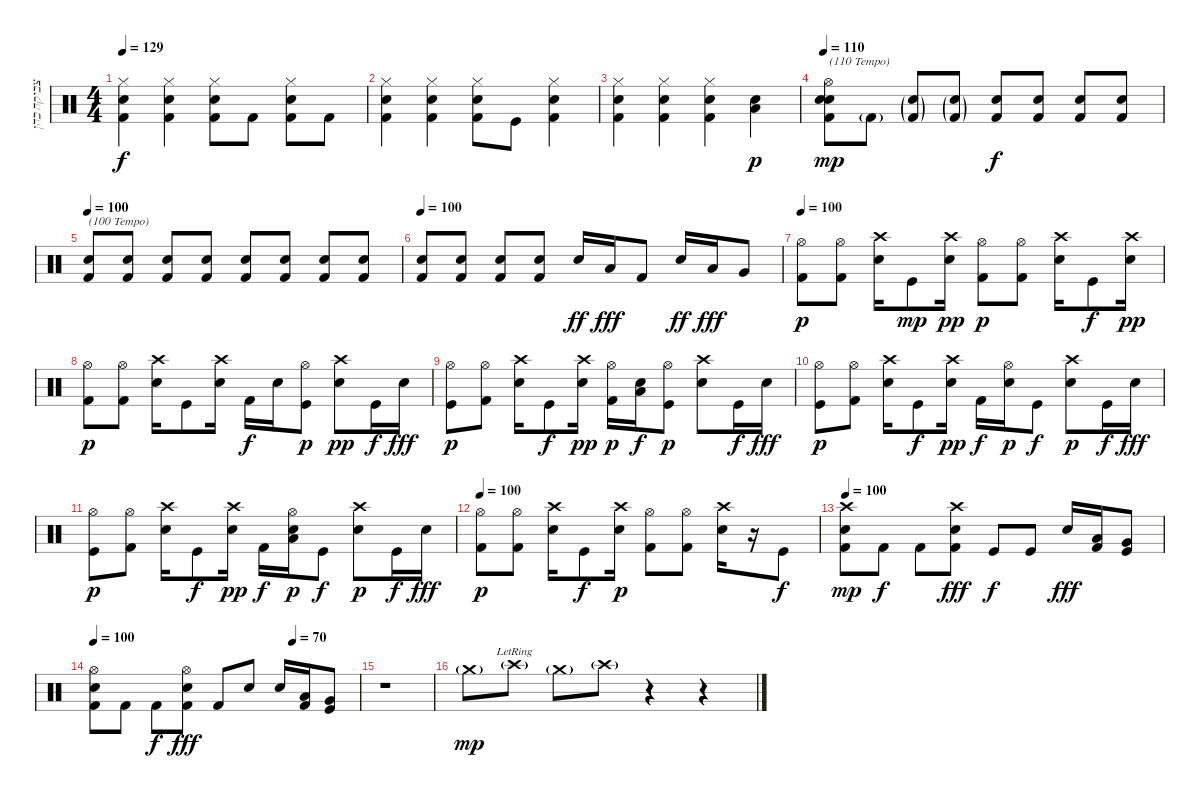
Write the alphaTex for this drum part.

\track ("צביקה כהן - תופים" "צביקה כהן ") {instrument percussion}
\staff {score}
\articulation defaults
\ts (4 4)
\tempo 129
\clef neutral
\ks c
("Hi-Hat (closed)" "Electric Snare (hit)" "Kick (hit) 2").4{dy f} ("Hi-Hat (closed)" "Electric Snare (hit)" "Kick (hit) 2").4 ("Hi-Hat (closed)" "Electric Snare (hit)" "Kick (hit) 2").8 "Kick (hit) 2".8 ("Hi-Hat (closed)" "Electric Snare (hit)" "Kick (hit) 2").8 "Kick (hit) 2".8 |
("Hi-Hat (closed)" "Electric Snare (hit)" "Kick (hit) 2").4 ("Hi-Hat (closed)" "Electric Snare (hit)" "Kick (hit) 2").4 ("Hi-Hat (closed)" "Electric Snare (hit)" "Kick (hit) 2").8 "Kick (hit)".8 ("Hi-Hat (closed)" "Electric Snare (hit)" "Kick (hit) 2").4 |
("Hi-Hat (closed)" "Electric Snare (hit)" "Kick (hit) 2").4 ("Hi-Hat (closed)" "Electric Snare (hit)" "Kick (hit) 2").4 ("Hi-Hat (closed)" "Electric Snare (hit)" "Kick (hit) 2").4 ("Low Tom (hit)" "Electric Snare (hit)").4{dy p} |
\tempo 110
("Electric Snare (hit)" "Snare (hit) 2" "Hi-Hat (open)" "Kick (hit) 2").8{txt "(110 Tempo) " dy mp} "Kick (hit) 2"{g}.8 ("Electric Snare (hit)"{g} "Kick (hit) 2"{g}).8 ("Electric Snare (hit)"{g} "Kick (hit) 2"{g}).8 ("Electric Snare (hit)" "Kick (hit) 2").8{dy f} ("Electric Snare (hit)" "Kick (hit) 2").8 ("Electric Snare (hit)" "Kick (hit) 2").8 ("Electric Snare (hit)" "Kick (hit) 2").8 |
\tempo 100
("Electric Snare (hit)" "Kick (hit) 2").8{txt "(100 Tempo)"} ("Electric Snare (hit)" "Kick (hit) 2").8 ("Electric Snare (hit)" "Kick (hit) 2").8 ("Electric Snare (hit)" "Kick (hit) 2").8 ("Electric Snare (hit)" "Kick (hit) 2").8 ("Electric Snare (hit)" "Kick (hit) 2").8 ("Electric Snare (hit)" "Kick (hit) 2").8 ("Electric Snare (hit)" "Kick (hit) 2").8 |
\tempo 100
("Electric Snare (hit)" "Kick (hit) 2").8 ("Electric Snare (hit)" "Kick (hit) 2").8 ("Electric Snare (hit)" "Kick (hit) 2").8 ("Electric Snare (hit)" "Kick (hit) 2").8 "Electric Snare (hit)".16{dy ff} "Low Tom (hit)".16{dy fff} "Kick (hit) 2".8 "Electric Snare (hit)".16{dy ff} "Low Tom (hit)".16{dy fff} "Very Low Tom (hit)".8 |
\tempo 100
("Kick (hit) 2" "Hi-Hat (open)").8{dy p} ("Kick (hit) 2" "Hi-Hat (open)").8 ("Electric Snare (hit)" "Crash high (hit)").16 "Kick (hit)".8{dy mp} ("Electric Snare (hit)" "Crash high (hit)").16{dy pp} ("Kick (hit) 2" "Hi-Hat (open)").8{dy p} ("Kick (hit) 2" "Hi-Hat (open)").8 ("Electric Snare (hit)" "Crash high (hit)").16 "Kick (hit)".8{dy f} ("Electric Snare (hit)" "Crash high (hit)").16{dy pp} |
("Kick (hit) 2" "Hi-Hat (open)").8{dy p} ("Kick (hit) 2" "Hi-Hat (open)").8 ("Electric Snare (hit)" "Crash high (hit)").16 "Kick (hit)".8 ("Electric Snare (hit)" "Crash high (hit)").16 "Kick (hit) 2".16{dy f} "Electric Snare (hit)".16 ("Kick (hit)" "Hi-Hat (open)").8{dy p} ("Electric Snare (hit)" "Crash high (hit)").8{dy pp} "Kick (hit)".16{dy f} "Electric Snare (hit)".16{dy fff} |
("Kick (hit)" "Hi-Hat (open)").8{dy p} ("Kick (hit) 2" "Hi-Hat (open)").8 ("Electric Snare (hit)" "Crash high (hit)").16 "Kick (hit)".8{dy f} ("Electric Snare (hit)" "Crash high (hit)").16{dy pp} ("Kick (hit) 2" "Hi-Hat (open)").16{dy p} ("Low Tom (hit)" "Electric Snare (hit)").16{dy f} ("Kick (hit)" "Hi-Hat (open)").8{dy p} ("Electric Snare (hit)" "Crash high (hit)").8 "Kick (hit)".16{dy f} "Electric Snare (hit)".16{dy fff} |
("Kick (hit)" "Hi-Hat (open)").8{dy p} ("Kick (hit) 2" "Hi-Hat (open)").8 ("Electric Snare (hit)" "Crash high (hit)").16 "Kick (hit)".8{dy f} ("Electric Snare (hit)" "Crash high (hit)").16{dy pp} "Kick (hit) 2".16{dy f} ("Electric Snare (hit)" "Hi-Hat (open)").16{dy p} "Kick (hit)".8{dy f} ("Electric Snare (hit)" "Crash high (hit)").8{dy p} "Kick (hit)".16{dy f} "Electric Snare (hit)".16{dy fff} |
("Kick (hit)" "Hi-Hat (open)").8{dy p} ("Kick (hit) 2" "Hi-Hat (open)").8 ("Electric Snare (hit)" "Crash high (hit)").16 "Kick (hit)".8{dy f} ("Electric Snare (hit)" "Crash high (hit)").16{dy pp} "Kick (hit) 2".16{dy f} ("Low Tom (hit)" "Electric Snare (hit)" "Hi-Hat (open)").16{dy p} "Kick (hit)".8{dy f} ("Electric Snare (hit)" "Crash high (hit)").8{dy p} "Kick (hit)".16{dy f} "Electric Snare (hit)".16{dy fff} |
\tempo 100
("Kick (hit) 2" "Hi-Hat (open)").8{dy p} ("Kick (hit) 2" "Hi-Hat (open)").8 ("Electric Snare (hit)" "Crash high (hit)").16 "Kick (hit)".8{dy f} ("Electric Snare (hit)" "Crash high (hit)").16{dy p} ("Kick (hit) 2" "Hi-Hat (open)").8 ("Kick (hit) 2" "Hi-Hat (open)").8 ("Electric Snare (hit)" "Crash high (hit)").16 r.16 "Kick (hit)".8{dy f} |
\tempo 100
("Crash high (hit)" "Kick (hit) 2" "Electric Snare (hit)").8{dy mp} "Kick (hit) 2".8{dy f} "Kick (hit) 2".8 ("Crash high (hit)" "Kick (hit) 2" "Electric Snare (hit)").8{dy fff} "Kick (hit)".8{dy f} "Kick (hit)".8 "Electric Snare (hit)".16{dy fff} ("Kick (hit) 2" "Low Tom (hit)").16 ("Kick (hit)" "Very Low Tom (hit)").8 |
\tempo 100
\tempo (70 0.75)
("Hi-Hat (open)" "Kick (hit) 2" "Electric Snare (hit)").8 "Kick (hit) 2".8 "Kick (hit) 2".8{dy f} ("Hi-Hat (open)" "Kick (hit) 2" "Electric Snare (hit)").8{dy fff} "Kick (hit) 2".8 "Electric Snare (hit)".8 "Electric Snare (hit)".16 ("Kick (hit) 2" "Low Tom (hit)").16 ("Kick (hit)" "Very Low Tom (hit)").8 |
r.1 |
"Crash medium (hit)"{g}.8{dy mp} "Crash high (hit)"{g lr}.8 "Crash medium (hit)"{g}.8 "Crash high (hit)"{g}.8 r.4 r.4
